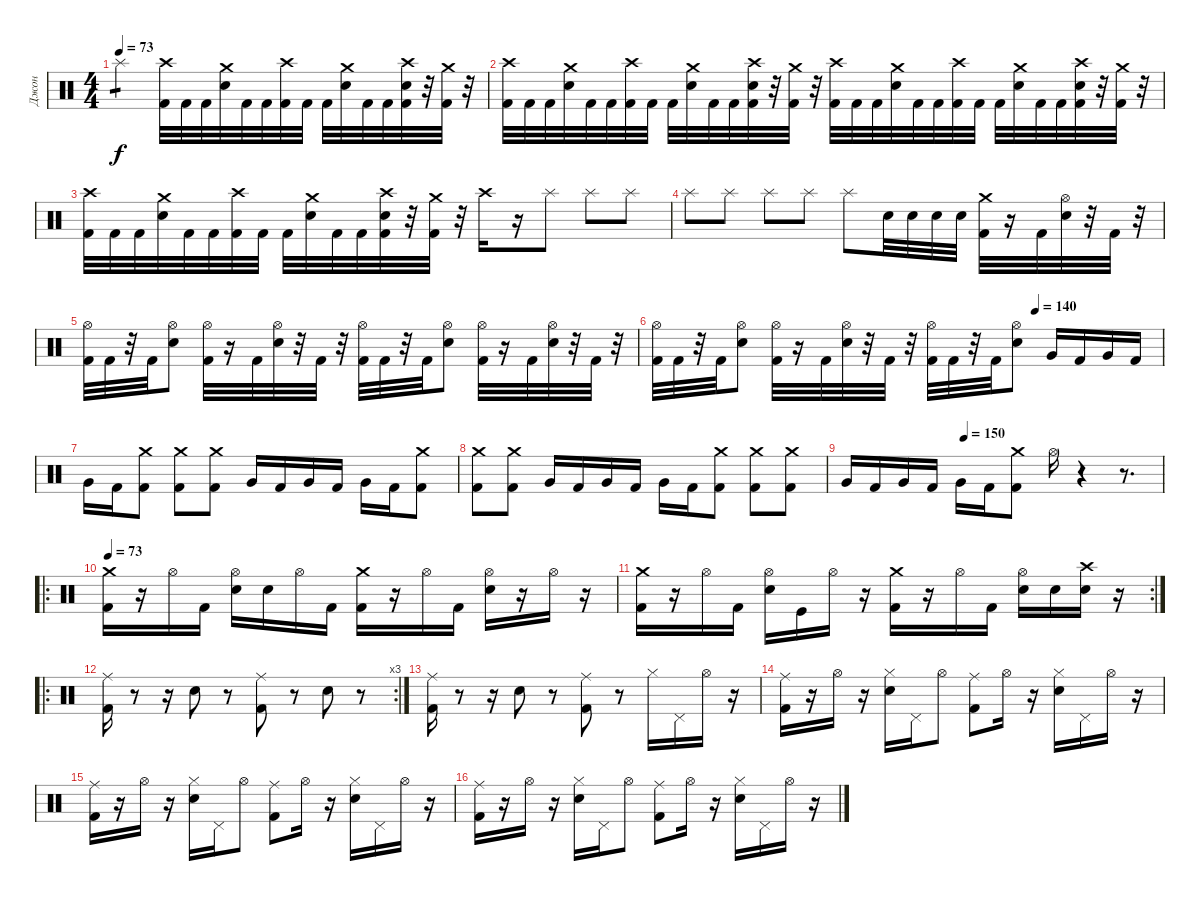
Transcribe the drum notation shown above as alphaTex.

\track ("Джон" "Джон") {instrument percussion}
\staff {score}
\articulation defaults
\ts (4 4)
\tempo 73
\clef neutral
\ks c "Splash (hit)".2{tp 1 dy f}
("Crash high (hit)" "Kick (hit) 2").32 "Kick (hit) 2".32 "Kick (hit) 2".32 ("Crash medium (hit)" "Electric Snare (hit)").32 "Kick (hit) 2".32 "Kick (hit) 2".32 ("Crash high (hit)" "Kick (hit) 2").32 "Kick (hit) 2".32 "Kick (hit) 2".32 ("Crash medium (hit)" "Electric Snare (hit)").32 "Kick (hit) 2".32 "Kick (hit) 2".32 ("Crash high (hit)" "Electric Snare (hit)" "Kick (hit) 2").32 r.32 ("Crash medium (hit)" "Kick (hit) 2").32 r.32 |
("Crash high (hit)" "Kick (hit) 2").32 "Kick (hit) 2".32 "Kick (hit) 2".32 ("Crash medium (hit)" "Electric Snare (hit)").32 "Kick (hit) 2".32 "Kick (hit) 2".32 ("Crash high (hit)" "Kick (hit) 2").32 "Kick (hit) 2".32 "Kick (hit) 2".32 ("Crash medium (hit)" "Electric Snare (hit)").32 "Kick (hit) 2".32 "Kick (hit) 2".32 ("Crash high (hit)" "Electric Snare (hit)" "Kick (hit) 2").32 r.32 ("Crash medium (hit)" "Kick (hit) 2").32 r.32 ("Crash high (hit)" "Kick (hit) 2").32 "Kick (hit) 2".32 "Kick (hit) 2".32 ("Crash medium (hit)" "Electric Snare (hit)").32 "Kick (hit) 2".32 "Kick (hit) 2".32 ("Crash high (hit)" "Kick (hit) 2").32 "Kick (hit) 2".32 "Kick (hit) 2".32 ("Crash medium (hit)" "Electric Snare (hit)").32 "Kick (hit) 2".32 "Kick (hit) 2".32 ("Crash high (hit)" "Electric Snare (hit)" "Kick (hit) 2").32 r.32 ("Crash medium (hit)" "Kick (hit) 2").32 r.32 |
("Crash high (hit)" "Kick (hit) 2").32 "Kick (hit) 2".32 "Kick (hit) 2".32 ("Crash medium (hit)" "Electric Snare (hit)").32 "Kick (hit) 2".32 "Kick (hit) 2".32 ("Crash high (hit)" "Kick (hit) 2").32 "Kick (hit) 2".32 "Kick (hit) 2".32 ("Crash medium (hit)" "Electric Snare (hit)").32 "Kick (hit) 2".32 "Kick (hit) 2".32 ("Crash high (hit)" "Electric Snare (hit)" "Kick (hit) 2").32 r.32 ("Crash medium (hit)" "Kick (hit) 2").32 r.32 "Crash high (hit)".16 r.16 "Splash (hit)".8 "Splash (hit)".8 "Splash (hit)".8 |
"Splash (hit)".8 "Splash (hit)".8 "Splash (hit)".8 "Splash (hit)".8 "Splash (hit)".8 "Electric Snare (hit)".32 "Electric Snare (hit)".32 "Electric Snare (hit)".32 "Electric Snare (hit)".32 ("Crash medium (hit)" "Kick (hit) 2").32 r.16 "Kick (hit) 2".32 ("Hi-Hat (open)" "Electric Snare (hit)").32 r.32 "Kick (hit) 2".32 r.32 |
("Hi-Hat (open)" "Kick (hit) 2").32 "Kick (hit) 2".32 r.32 "Kick (hit) 2".32 ("Hi-Hat (open)" "Electric Snare (hit)").8 ("Hi-Hat (open)" "Kick (hit) 2").32 r.16 "Kick (hit) 2".32 ("Hi-Hat (open)" "Electric Snare (hit)").32 r.32 "Kick (hit) 2".32 r.32 ("Hi-Hat (open)" "Kick (hit) 2").32 "Kick (hit) 2".32 r.32 "Kick (hit) 2".32 ("Hi-Hat (open)" "Electric Snare (hit)").8 ("Hi-Hat (open)" "Kick (hit) 2").32 r.16 "Kick (hit) 2".32 ("Hi-Hat (open)" "Electric Snare (hit)").32 r.32 "Kick (hit) 2".32 r.32 |
\tempo (140 0.75)
("Hi-Hat (open)" "Kick (hit) 2").32 "Kick (hit) 2".32 r.32 "Kick (hit) 2".32 ("Hi-Hat (open)" "Electric Snare (hit)").8 ("Hi-Hat (open)" "Kick (hit) 2").32 r.16 "Kick (hit) 2".32 ("Hi-Hat (open)" "Electric Snare (hit)").32 r.32 "Kick (hit) 2".32 r.32 ("Hi-Hat (open)" "Kick (hit) 2").32 "Kick (hit) 2".32 r.32 "Kick (hit) 2".32 ("Hi-Hat (open)" "Electric Snare (hit)").8 "Very Low Tom (hit)".16 "Kick (hit) 2".16 "Very Low Tom (hit)".16 "Kick (hit) 2".16 |
"Very Low Tom (hit)".16 "Kick (hit) 2".16 ("Crash medium (hit)" "Kick (hit) 2").8 ("Crash medium (hit)" "Kick (hit) 2").8 ("Crash medium (hit)" "Kick (hit) 2").8 "Very Low Tom (hit)".16 "Kick (hit) 2".16 "Very Low Tom (hit)".16 "Kick (hit) 2".16 "Very Low Tom (hit)".16 "Kick (hit) 2".16 ("Crash medium (hit)" "Kick (hit) 2").8 |
("Crash medium (hit)" "Kick (hit) 2").8 ("Crash medium (hit)" "Kick (hit) 2").8 "Very Low Tom (hit)".16 "Kick (hit) 2".16 "Very Low Tom (hit)".16 "Kick (hit) 2".16 "Very Low Tom (hit)".16 "Kick (hit) 2".16 ("Crash medium (hit)" "Kick (hit) 2").8 ("Crash medium (hit)" "Kick (hit) 2").8 ("Crash medium (hit)" "Kick (hit) 2").8 |
\tempo (150 0.375)
"Very Low Tom (hit)".16 "Kick (hit) 2".16 "Very Low Tom (hit)".16 "Kick (hit) 2".16 "Very Low Tom (hit)".16 "Kick (hit) 2".16 ("Crash medium (hit)" "Kick (hit) 2").8 "Hi-Hat (open)".16 r.4 r.8{d} |
\ro
\tempo 73
("Crash medium (hit)" "Kick (hit) 2").16 r.16 "Hi-Hat (open)".16 "Kick (hit) 2".16 ("Hi-Hat (open)" "Electric Snare (hit)").16 "Electric Snare (hit)".16 "Hi-Hat (open)".16 "Kick (hit) 2".16 ("Crash medium (hit)" "Kick (hit) 2").16 r.16 "Hi-Hat (open)".16 "Kick (hit) 2".16 ("Hi-Hat (open)" "Electric Snare (hit)").16 r.16 "Hi-Hat (open)".16 r.16 |
\rc 2
("Crash medium (hit)" "Kick (hit) 2").16 r.16 "Hi-Hat (open)".16 "Kick (hit) 2".16 ("Hi-Hat (open)" "Electric Snare (hit)").16 "Kick (hit)".16 "Hi-Hat (open)".16 r.16 ("Crash medium (hit)" "Kick (hit) 2").16 r.16 "Hi-Hat (open)".16 "Kick (hit) 2".16 ("Hi-Hat (open)" "Electric Snare (hit)").16 "Electric Snare (hit)".16 ("Crash high (hit)" "Electric Snare (hit)").16 r.16 |
\ro
\rc 3
("Ride (middle)" "Kick (hit) 2").16 r.8 r.16 "Electric Snare (hit)".8 r.8 ("Ride (middle)" "Kick (hit) 2").8 r.8 "Electric Snare (hit)".8 r.8 |
("Ride (middle)" "Kick (hit) 2").16 r.8 r.16 "Electric Snare (hit)".8 r.8 ("Ride (middle)" "Kick (hit) 2").8 r.8 "Hi-Hat (closed)".16 "Pedal Hi-Hat (hit)".16 "Hi-Hat (open)".16 r.16 |
("Ride (middle)" "Kick (hit) 2").16 r.16 "Hi-Hat (open)".16 r.16 ("Hi-Hat (closed)" "Electric Snare (hit)").16 "Pedal Hi-Hat (hit)".16 "Hi-Hat (open)".8 ("Ride (middle)" "Kick (hit) 2").8 "Hi-Hat (open)".16 r.16 ("Hi-Hat (closed)" "Electric Snare (hit)").16 "Pedal Hi-Hat (hit)".16 "Hi-Hat (open)".16 r.16 |
("Ride (middle)" "Kick (hit) 2").16 r.16 "Hi-Hat (open)".16 r.16 ("Hi-Hat (closed)" "Electric Snare (hit)").16 "Pedal Hi-Hat (hit)".16 "Hi-Hat (open)".8 ("Ride (middle)" "Kick (hit) 2").8 "Hi-Hat (open)".16 r.16 ("Hi-Hat (closed)" "Electric Snare (hit)").16 "Pedal Hi-Hat (hit)".16 "Hi-Hat (open)".16 r.16 |
("Ride (middle)" "Kick (hit) 2").16 r.16 "Hi-Hat (open)".16 r.16 ("Hi-Hat (closed)" "Electric Snare (hit)").16 "Pedal Hi-Hat (hit)".16 "Hi-Hat (open)".8 ("Ride (middle)" "Kick (hit) 2").8 "Hi-Hat (open)".16 r.16 ("Hi-Hat (closed)" "Electric Snare (hit)").16 "Pedal Hi-Hat (hit)".16 "Hi-Hat (open)".16 r.16
